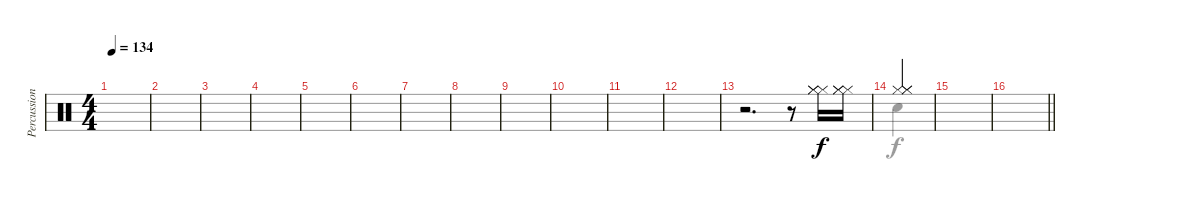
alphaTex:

\track ("Percussion" "Percussion") {instrument percussion}
\staff {score}
\articulation defaults
\voice
\ts (4 4)
\tempo 134
\clef neutral
\ks c
|
|
|
|
|
|
|
|
|
|
|
|
r.2{d} r.8 ("Hi-Hat (closed)" "Hi-Hat (closed)" "Hi-Hat (closed)").16 ("Hi-Hat (closed)" "Hi-Hat (closed)" "Hi-Hat (closed)").16 |
("Hi-Hat (closed)" "Hi-Hat (closed)" "Hi-Hat (closed)").4 |
|
\barLineRight lightlight
\voice
\clef neutral
\ottava regular
\simile none
\ks c
|
|
|
|
|
|
|
|
|
|
|
|
|
"Snare (hit)".4 |
|
\barLineRight lightlight
